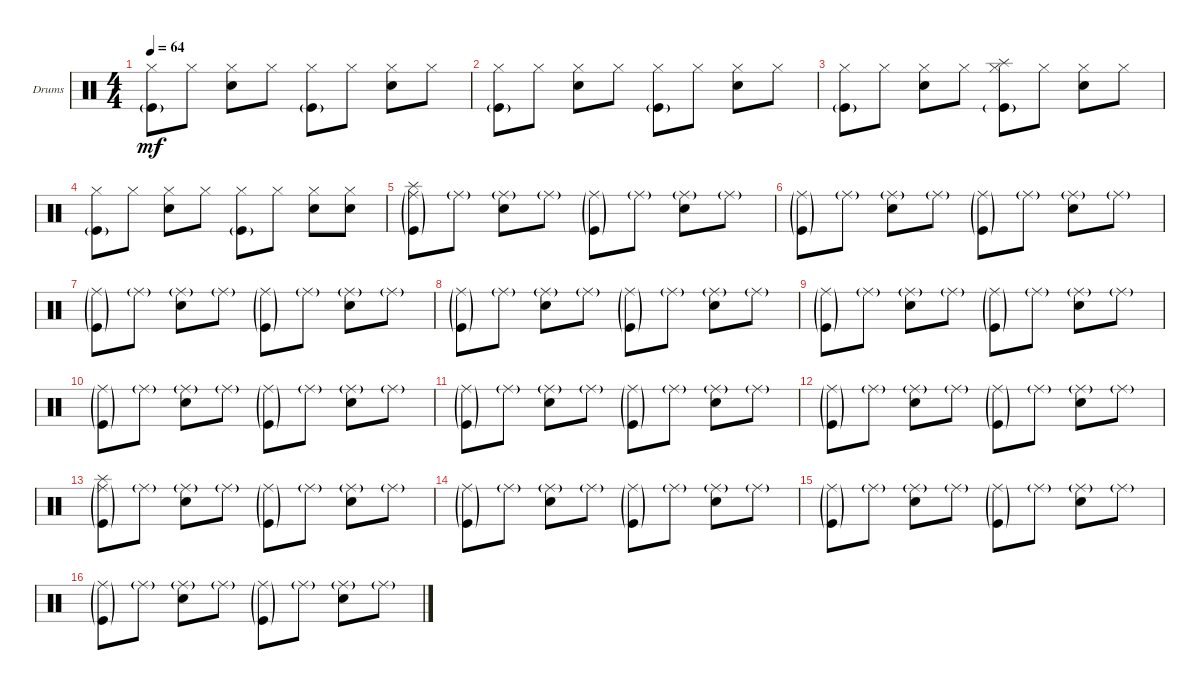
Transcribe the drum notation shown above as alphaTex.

\defaultSystemsLayout 4
\bracketExtendMode groupsimilarinstruments
\firstSystemTrackNameOrientation horizontal
\otherSystemsTrackNameOrientation horizontal
\track ("Drumkit" "Drums") {instrument percussion}
\staff {score}
\articulation defaults
\ts (4 4)
\tempo 64
\clef neutral
\ks c
("Hi-Hat (closed)" "Kick (hit)"{g}).8{dy mf} "Hi-Hat (closed)".8 ("Hi-Hat (closed)" "Snare (hit) 2").8 "Hi-Hat (closed)".8 ("Hi-Hat (closed)" "Kick (hit)"{g}).8 "Hi-Hat (closed)".8 ("Hi-Hat (closed)" "Snare (hit) 2").8 "Hi-Hat (closed)".8 |
("Hi-Hat (closed)" "Kick (hit)"{g}).8 "Hi-Hat (closed)".8 ("Hi-Hat (closed)" "Snare (hit) 2").8 "Hi-Hat (closed)".8 ("Hi-Hat (closed)" "Kick (hit)"{g}).8 "Hi-Hat (closed)".8 ("Hi-Hat (closed)" "Snare (hit) 2").8 "Hi-Hat (closed)".8 |
("Hi-Hat (closed)" "Kick (hit)"{g}).8 "Hi-Hat (closed)".8 ("Hi-Hat (closed)" "Snare (hit) 2").8 "Hi-Hat (closed)".8 ("Hi-Hat (closed)" "Kick (hit)"{g} "Splash (hit)").8 "Hi-Hat (closed)".8 ("Hi-Hat (closed)" "Snare (hit) 2").8 "Hi-Hat (closed)".8 |
("Hi-Hat (closed)" "Kick (hit)"{g}).8 "Hi-Hat (closed)".8 ("Hi-Hat (closed)" "Snare (hit) 2").8 "Hi-Hat (closed)".8 ("Hi-Hat (closed)" "Kick (hit)"{g}).8 "Hi-Hat (closed)".8 ("Hi-Hat (closed)" "Snare (hit) 2").8 ("Hi-Hat (closed)" "Snare (hit) 2").8 |
("Ride (middle)"{g} "Splash (hit)" "Kick (hit)"{g}).8 "Ride (middle)"{g}.8 ("Ride (middle)"{g} "Snare (hit) 2").8 "Ride (middle)"{g}.8 ("Ride (middle)"{g} "Kick (hit)"{g}).8 "Ride (middle)"{g}.8 ("Ride (middle)"{g} "Snare (hit) 2").8 "Ride (middle)"{g}.8 |
("Ride (middle)"{g} "Kick (hit)"{g}).8 "Ride (middle)"{g}.8 ("Ride (middle)"{g} "Snare (hit) 2").8 "Ride (middle)"{g}.8 ("Ride (middle)"{g} "Kick (hit)"{g}).8 "Ride (middle)"{g}.8 ("Ride (middle)"{g} "Snare (hit) 2").8 "Ride (middle)"{g}.8 |
("Ride (middle)"{g} "Kick (hit)"{g}).8 "Ride (middle)"{g}.8 ("Ride (middle)"{g} "Snare (hit) 2").8 "Ride (middle)"{g}.8 ("Ride (middle)"{g} "Kick (hit)"{g}).8 "Ride (middle)"{g}.8 ("Ride (middle)"{g} "Snare (hit) 2").8 "Ride (middle)"{g}.8 |
("Ride (middle)"{g} "Kick (hit)"{g}).8 "Ride (middle)"{g}.8 ("Ride (middle)"{g} "Snare (hit) 2").8 "Ride (middle)"{g}.8 ("Ride (middle)"{g} "Kick (hit)"{g}).8 "Ride (middle)"{g}.8 ("Ride (middle)"{g} "Snare (hit) 2").8 "Ride (middle)"{g}.8 |
("Ride (middle)"{g} "Kick (hit)"{g}).8 "Ride (middle)"{g}.8 ("Ride (middle)"{g} "Snare (hit) 2").8 "Ride (middle)"{g}.8 ("Ride (middle)"{g} "Kick (hit)"{g}).8 "Ride (middle)"{g}.8 ("Ride (middle)"{g} "Snare (hit) 2").8 "Ride (middle)"{g}.8 |
("Ride (middle)"{g} "Kick (hit)"{g}).8 "Ride (middle)"{g}.8 ("Ride (middle)"{g} "Snare (hit) 2").8 "Ride (middle)"{g}.8 ("Ride (middle)"{g} "Kick (hit)"{g}).8 "Ride (middle)"{g}.8 ("Ride (middle)"{g} "Snare (hit) 2").8 "Ride (middle)"{g}.8 |
("Ride (middle)"{g} "Kick (hit)"{g}).8 "Ride (middle)"{g}.8 ("Ride (middle)"{g} "Snare (hit) 2").8 "Ride (middle)"{g}.8 ("Ride (middle)"{g} "Kick (hit)"{g}).8 "Ride (middle)"{g}.8 ("Ride (middle)"{g} "Snare (hit) 2").8 "Ride (middle)"{g}.8 |
("Ride (middle)"{g} "Kick (hit)"{g}).8 "Ride (middle)"{g}.8 ("Ride (middle)"{g} "Snare (hit) 2").8 "Ride (middle)"{g}.8 ("Ride (middle)"{g} "Kick (hit)"{g}).8 "Ride (middle)"{g}.8 ("Ride (middle)"{g} "Snare (hit) 2").8 "Ride (middle)"{g}.8 |
("Ride (middle)"{g} "Splash (hit)" "Kick (hit)"{g}).8 "Ride (middle)"{g}.8 ("Ride (middle)"{g} "Snare (hit) 2").8 "Ride (middle)"{g}.8 ("Ride (middle)"{g} "Kick (hit)"{g}).8 "Ride (middle)"{g}.8 ("Ride (middle)"{g} "Snare (hit) 2").8 "Ride (middle)"{g}.8 |
("Ride (middle)"{g} "Kick (hit)"{g}).8 "Ride (middle)"{g}.8 ("Ride (middle)"{g} "Snare (hit) 2").8 "Ride (middle)"{g}.8 ("Ride (middle)"{g} "Kick (hit)"{g}).8 "Ride (middle)"{g}.8 ("Ride (middle)"{g} "Snare (hit) 2").8 "Ride (middle)"{g}.8 |
("Ride (middle)"{g} "Kick (hit)"{g}).8 "Ride (middle)"{g}.8 ("Ride (middle)"{g} "Snare (hit) 2").8 "Ride (middle)"{g}.8 ("Ride (middle)"{g} "Kick (hit)"{g}).8 "Ride (middle)"{g}.8 ("Ride (middle)"{g} "Snare (hit) 2").8 "Ride (middle)"{g}.8 |
("Ride (middle)"{g} "Kick (hit)"{g}).8 "Ride (middle)"{g}.8 ("Ride (middle)"{g} "Snare (hit) 2").8 "Ride (middle)"{g}.8 ("Ride (middle)"{g} "Kick (hit)"{g}).8 "Ride (middle)"{g}.8 ("Ride (middle)"{g} "Snare (hit) 2").8 "Ride (middle)"{g}.8
